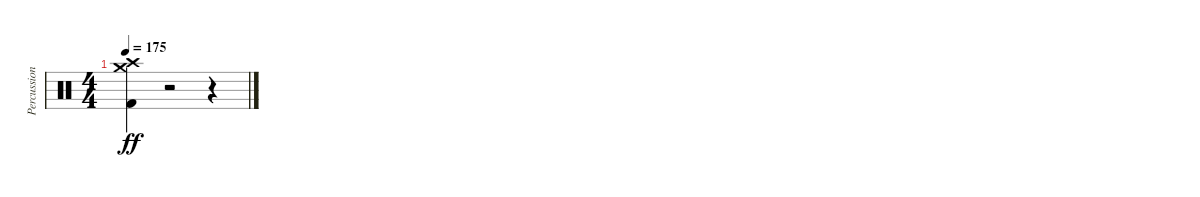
\track ("Percussion" "Percussion") {instrument percussion}
\staff {score}
\articulation defaults
\ts (4 4)
\tempo 175
\clef neutral
\ks c
("Kick (hit) 2" "Crash medium (hit)" "Crash high (hit)").4{dy ff} r.2 r.4
